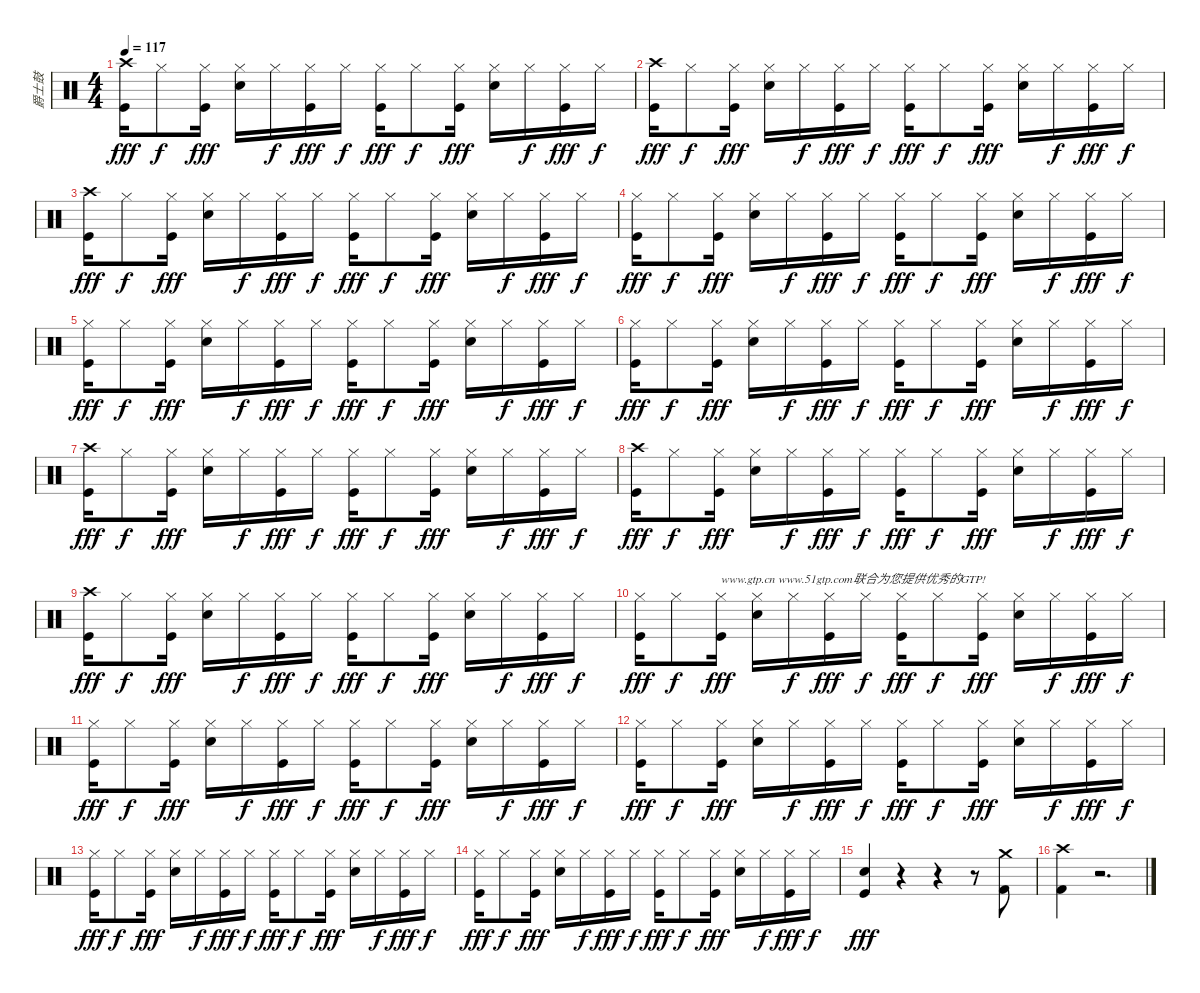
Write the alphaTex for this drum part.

\track ("爵士鼓" "爵士鼓") {instrument percussion}
\staff {score}
\articulation defaults
\ts (4 4)
\tempo 117
\clef neutral
\ks c
("Kick (hit)" "Crash high (hit)").16{dy fff} "Hi-Hat (closed)".8{dy f} ("Kick (hit)" "Hi-Hat (closed)").16{dy fff} ("Snare (hit) 2" "Hi-Hat (closed)").16 "Hi-Hat (closed)".16{dy f} ("Kick (hit)" "Hi-Hat (closed)").16{dy fff} "Hi-Hat (closed)".16{dy f} ("Kick (hit)" "Hi-Hat (closed)").16{dy fff} "Hi-Hat (closed)".8{dy f} ("Kick (hit)" "Hi-Hat (closed)").16{dy fff} ("Snare (hit) 2" "Hi-Hat (closed)").16 "Hi-Hat (closed)".16{dy f} ("Kick (hit)" "Hi-Hat (closed)").16{dy fff} "Hi-Hat (closed)".16{dy f} |
("Kick (hit)" "Crash high (hit)").16{dy fff} "Hi-Hat (closed)".8{dy f} ("Kick (hit)" "Hi-Hat (closed)").16{dy fff} ("Snare (hit) 2" "Hi-Hat (closed)").16 "Hi-Hat (closed)".16{dy f} ("Kick (hit)" "Hi-Hat (closed)").16{dy fff} "Hi-Hat (closed)".16{dy f} ("Kick (hit)" "Hi-Hat (closed)").16{dy fff} "Hi-Hat (closed)".8{dy f} ("Kick (hit)" "Hi-Hat (closed)").16{dy fff} ("Snare (hit) 2" "Hi-Hat (closed)").16 "Hi-Hat (closed)".16{dy f} ("Kick (hit)" "Hi-Hat (closed)").16{dy fff} "Hi-Hat (closed)".16{dy f} |
("Kick (hit)" "Crash high (hit)").16{dy fff} "Hi-Hat (closed)".8{dy f} ("Kick (hit)" "Hi-Hat (closed)").16{dy fff} ("Snare (hit) 2" "Hi-Hat (closed)").16 "Hi-Hat (closed)".16{dy f} ("Kick (hit)" "Hi-Hat (closed)").16{dy fff} "Hi-Hat (closed)".16{dy f} ("Kick (hit)" "Hi-Hat (closed)").16{dy fff} "Hi-Hat (closed)".8{dy f} ("Kick (hit)" "Hi-Hat (closed)").16{dy fff} ("Snare (hit) 2" "Hi-Hat (closed)").16 "Hi-Hat (closed)".16{dy f} ("Kick (hit)" "Hi-Hat (closed)").16{dy fff} "Hi-Hat (closed)".16{dy f} |
("Kick (hit)" "Hi-Hat (closed)").16{dy fff} "Hi-Hat (closed)".8{dy f} ("Kick (hit)" "Hi-Hat (closed)").16{dy fff} ("Snare (hit) 2" "Hi-Hat (closed)").16 "Hi-Hat (closed)".16{dy f} ("Kick (hit)" "Hi-Hat (closed)").16{dy fff} "Hi-Hat (closed)".16{dy f} ("Kick (hit)" "Hi-Hat (closed)").16{dy fff} "Hi-Hat (closed)".8{dy f} ("Kick (hit)" "Hi-Hat (closed)").16{dy fff} ("Snare (hit) 2" "Hi-Hat (closed)").16 "Hi-Hat (closed)".16{dy f} ("Kick (hit)" "Hi-Hat (closed)").16{dy fff} "Hi-Hat (closed)".16{dy f} |
("Kick (hit)" "Hi-Hat (closed)").16{dy fff} "Hi-Hat (closed)".8{dy f} ("Kick (hit)" "Hi-Hat (closed)").16{dy fff} ("Snare (hit) 2" "Hi-Hat (closed)").16 "Hi-Hat (closed)".16{dy f} ("Kick (hit)" "Hi-Hat (closed)").16{dy fff} "Hi-Hat (closed)".16{dy f} ("Kick (hit)" "Hi-Hat (closed)").16{dy fff} "Hi-Hat (closed)".8{dy f} ("Kick (hit)" "Hi-Hat (closed)").16{dy fff} ("Snare (hit) 2" "Hi-Hat (closed)").16 "Hi-Hat (closed)".16{dy f} ("Kick (hit)" "Hi-Hat (closed)").16{dy fff} "Hi-Hat (closed)".16{dy f} |
("Kick (hit)" "Hi-Hat (closed)").16{dy fff} "Hi-Hat (closed)".8{dy f} ("Kick (hit)" "Hi-Hat (closed)").16{dy fff} ("Snare (hit) 2" "Hi-Hat (closed)").16 "Hi-Hat (closed)".16{dy f} ("Kick (hit)" "Hi-Hat (closed)").16{dy fff} "Hi-Hat (closed)".16{dy f} ("Kick (hit)" "Hi-Hat (closed)").16{dy fff} "Hi-Hat (closed)".8{dy f} ("Kick (hit)" "Hi-Hat (closed)").16{dy fff} ("Snare (hit) 2" "Hi-Hat (closed)").16 "Hi-Hat (closed)".16{dy f} ("Kick (hit)" "Hi-Hat (closed)").16{dy fff} "Hi-Hat (closed)".16{dy f} |
("Kick (hit)" "Crash high (hit)").16{dy fff} "Hi-Hat (closed)".8{dy f} ("Kick (hit)" "Hi-Hat (closed)").16{dy fff} ("Snare (hit) 2" "Hi-Hat (closed)").16 "Hi-Hat (closed)".16{dy f} ("Kick (hit)" "Hi-Hat (closed)").16{dy fff} "Hi-Hat (closed)".16{dy f} ("Kick (hit)" "Hi-Hat (closed)").16{dy fff} "Hi-Hat (closed)".8{dy f} ("Kick (hit)" "Hi-Hat (closed)").16{dy fff} ("Snare (hit) 2" "Hi-Hat (closed)").16 "Hi-Hat (closed)".16{dy f} ("Kick (hit)" "Hi-Hat (closed)").16{dy fff} "Hi-Hat (closed)".16{dy f} |
("Kick (hit)" "Crash high (hit)").16{dy fff} "Hi-Hat (closed)".8{dy f} ("Kick (hit)" "Hi-Hat (closed)").16{dy fff} ("Snare (hit) 2" "Hi-Hat (closed)").16 "Hi-Hat (closed)".16{dy f} ("Kick (hit)" "Hi-Hat (closed)").16{dy fff} "Hi-Hat (closed)".16{dy f} ("Kick (hit)" "Hi-Hat (closed)").16{dy fff} "Hi-Hat (closed)".8{dy f} ("Kick (hit)" "Hi-Hat (closed)").16{dy fff} ("Snare (hit) 2" "Hi-Hat (closed)").16 "Hi-Hat (closed)".16{dy f} ("Kick (hit)" "Hi-Hat (closed)").16{dy fff} "Hi-Hat (closed)".16{dy f} |
("Kick (hit)" "Crash high (hit)").16{dy fff} "Hi-Hat (closed)".8{dy f} ("Kick (hit)" "Hi-Hat (closed)").16{dy fff} ("Snare (hit) 2" "Hi-Hat (closed)").16 "Hi-Hat (closed)".16{dy f} ("Kick (hit)" "Hi-Hat (closed)").16{dy fff} "Hi-Hat (closed)".16{dy f} ("Kick (hit)" "Hi-Hat (closed)").16{dy fff} "Hi-Hat (closed)".8{dy f} ("Kick (hit)" "Hi-Hat (closed)").16{dy fff} ("Snare (hit) 2" "Hi-Hat (closed)").16 "Hi-Hat (closed)".16{dy f} ("Kick (hit)" "Hi-Hat (closed)").16{dy fff} "Hi-Hat (closed)".16{dy f} |
("Kick (hit)" "Hi-Hat (closed)").16{dy fff} "Hi-Hat (closed)".8{dy f} ("Kick (hit)" "Hi-Hat (closed)").16{txt "www.gtp.cn www.51gtp.com联合为您提供优秀的GTP!" dy fff} ("Snare (hit) 2" "Hi-Hat (closed)").16 "Hi-Hat (closed)".16{dy f} ("Kick (hit)" "Hi-Hat (closed)").16{dy fff} "Hi-Hat (closed)".16{dy f} ("Kick (hit)" "Hi-Hat (closed)").16{dy fff} "Hi-Hat (closed)".8{dy f} ("Kick (hit)" "Hi-Hat (closed)").16{dy fff} ("Snare (hit) 2" "Hi-Hat (closed)").16 "Hi-Hat (closed)".16{dy f} ("Kick (hit)" "Hi-Hat (closed)").16{dy fff} "Hi-Hat (closed)".16{dy f} |
("Kick (hit)" "Hi-Hat (closed)").16{dy fff} "Hi-Hat (closed)".8{dy f} ("Kick (hit)" "Hi-Hat (closed)").16{dy fff} ("Snare (hit) 2" "Hi-Hat (closed)").16 "Hi-Hat (closed)".16{dy f} ("Kick (hit)" "Hi-Hat (closed)").16{dy fff} "Hi-Hat (closed)".16{dy f} ("Kick (hit)" "Hi-Hat (closed)").16{dy fff} "Hi-Hat (closed)".8{dy f} ("Kick (hit)" "Hi-Hat (closed)").16{dy fff} ("Snare (hit) 2" "Hi-Hat (closed)").16 "Hi-Hat (closed)".16{dy f} ("Kick (hit)" "Hi-Hat (closed)").16{dy fff} "Hi-Hat (closed)".16{dy f} |
("Kick (hit)" "Hi-Hat (closed)").16{dy fff} "Hi-Hat (closed)".8{dy f} ("Kick (hit)" "Hi-Hat (closed)").16{dy fff} ("Snare (hit) 2" "Hi-Hat (closed)").16 "Hi-Hat (closed)".16{dy f} ("Kick (hit)" "Hi-Hat (closed)").16{dy fff} "Hi-Hat (closed)".16{dy f} ("Kick (hit)" "Hi-Hat (closed)").16{dy fff} "Hi-Hat (closed)".8{dy f} ("Kick (hit)" "Hi-Hat (closed)").16{dy fff} ("Snare (hit) 2" "Hi-Hat (closed)").16 "Hi-Hat (closed)".16{dy f} ("Kick (hit)" "Hi-Hat (closed)").16{dy fff} "Hi-Hat (closed)".16{dy f} |
("Kick (hit)" "Hi-Hat (closed)").16{dy fff} "Hi-Hat (closed)".8{dy f} ("Kick (hit)" "Hi-Hat (closed)").16{dy fff} ("Snare (hit) 2" "Hi-Hat (closed)").16 "Hi-Hat (closed)".16{dy f} ("Kick (hit)" "Hi-Hat (closed)").16{dy fff} "Hi-Hat (closed)".16{dy f} ("Kick (hit)" "Hi-Hat (closed)").16{dy fff} "Hi-Hat (closed)".8{dy f} ("Kick (hit)" "Hi-Hat (closed)").16{dy fff} ("Snare (hit) 2" "Hi-Hat (closed)").16 "Hi-Hat (closed)".16{dy f} ("Kick (hit)" "Hi-Hat (closed)").16{dy fff} "Hi-Hat (closed)".16{dy f} |
("Kick (hit)" "Hi-Hat (closed)").16{dy fff} "Hi-Hat (closed)".8{dy f} ("Kick (hit)" "Hi-Hat (closed)").16{dy fff} ("Snare (hit) 2" "Hi-Hat (closed)").16 "Hi-Hat (closed)".16{dy f} ("Kick (hit)" "Hi-Hat (closed)").16{dy fff} "Hi-Hat (closed)".16{dy f} ("Kick (hit)" "Hi-Hat (closed)").16{dy fff} "Hi-Hat (closed)".8{dy f} ("Kick (hit)" "Hi-Hat (closed)").16{dy fff} ("Snare (hit) 2" "Hi-Hat (closed)").16 "Hi-Hat (closed)".16{dy f} ("Kick (hit)" "Hi-Hat (closed)").16{dy fff} "Hi-Hat (closed)".16{dy f} |
("Kick (hit)" "Snare (hit) 2").4{dy fff} r.4 r.4 r.8 ("Kick (hit) 2" "Crash medium (hit)").8 |
("Kick (hit) 2" "Crash high (hit)").4 r.2{d}
